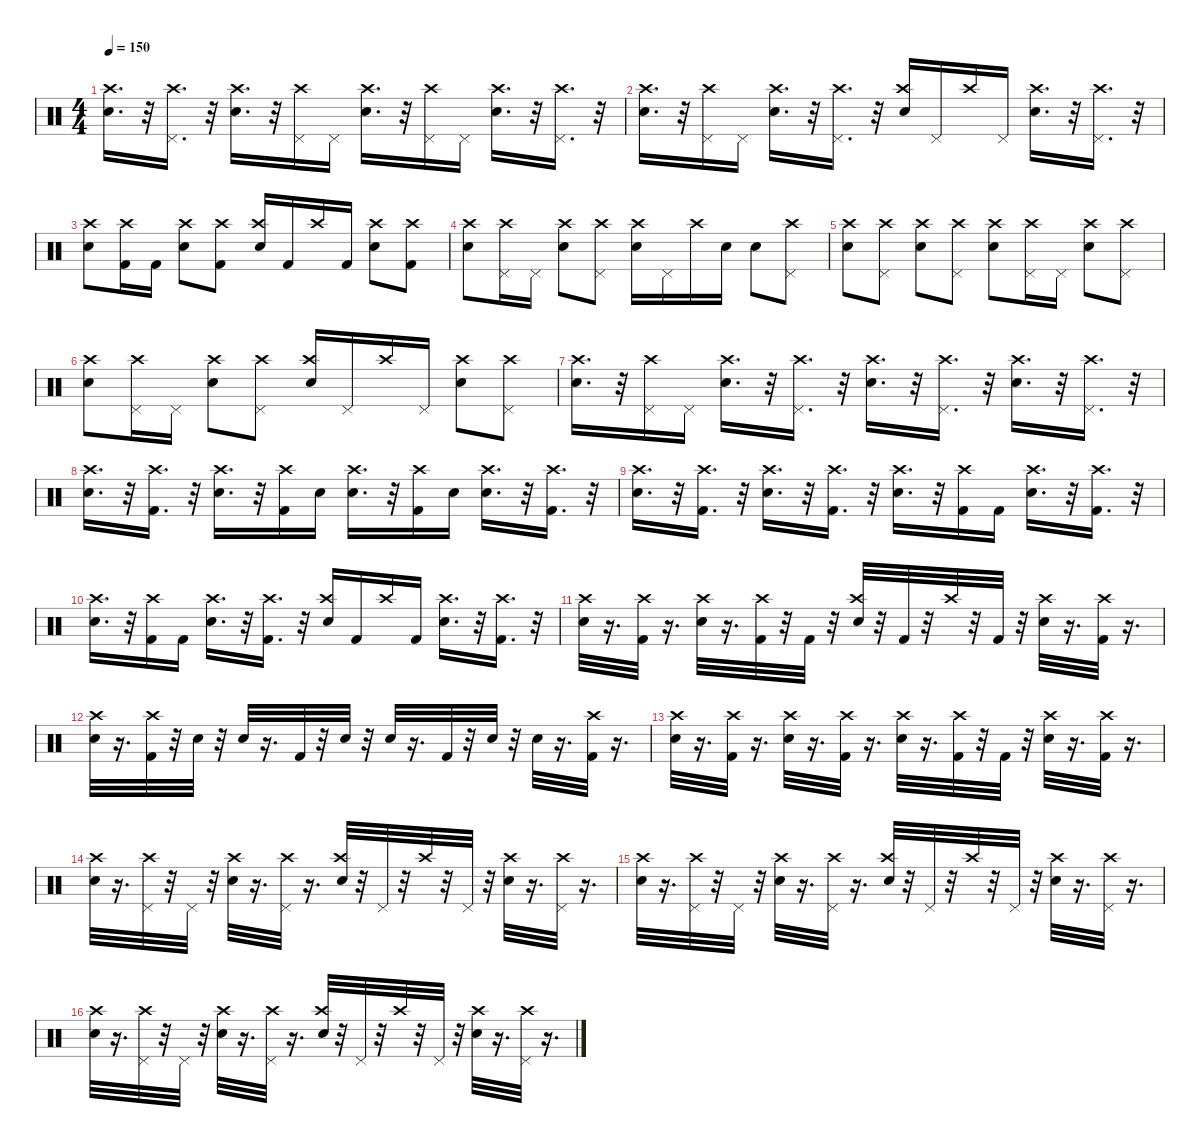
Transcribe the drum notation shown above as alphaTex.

\defaultSystemsLayout 4
\hideDynamics
\bracketExtendMode nobrackets
\singleTrackTrackNamePolicy hidden
\multiTrackTrackNamePolicy hidden
\firstSystemTrackNameMode fullname
\firstSystemTrackNameOrientation horizontal
\otherSystemsTrackNameOrientation horizontal
\track ("Bonzo" "drm.") {instrument percussion}
\staff {score}
\articulation defaults
\ts (4 4)
\tempo 150
\clef neutral
\ks c
("Snare (hit) 2" "Crash high (hit)").16{d dy fff beam Down} r.32{beam Down} ("Pedal Hi-Hat (hit)" "Crash high (hit)").16{d beam Down} r.32{beam Down} ("Snare (hit) 2" "Crash high (hit)").16{d beam Down} r.32{beam Down} ("Pedal Hi-Hat (hit)" "Crash high (hit)").16{beam Down} "Pedal Hi-Hat (hit)".16{beam Down} ("Snare (hit) 2" "Crash high (hit)").16{d beam Down} r.32{beam Down} ("Pedal Hi-Hat (hit)" "Crash high (hit)").16{beam Down} "Pedal Hi-Hat (hit)".16{beam Down} ("Snare (hit) 2" "Crash high (hit)").16{d beam Down} r.32{beam Down} ("Pedal Hi-Hat (hit)" "Crash high (hit)").16{d beam Down} r.32{beam Down} |
("Snare (hit) 2" "Crash high (hit)").16{d beam Down} r.32{beam Down} ("Pedal Hi-Hat (hit)" "Crash high (hit)").16{beam Down} "Pedal Hi-Hat (hit)".16{beam Down} ("Snare (hit) 2" "Crash high (hit)").16{d beam Down} r.32{beam Down} ("Pedal Hi-Hat (hit)" "Crash high (hit)").16{d beam Down} r.32{beam Down} ("Snare (hit) 2" "Crash high (hit)").16{beam Up} "Pedal Hi-Hat (hit)".16{beam Up} "Crash high (hit)".16{dy ff beam Up} "Pedal Hi-Hat (hit)".16{dy fff beam Up} ("Snare (hit) 2" "Crash high (hit)").16{d beam Down} r.32{beam Down} ("Pedal Hi-Hat (hit)" "Crash high (hit)").16{d beam Down} r.32{beam Down} |
("Snare (hit) 2" "Crash high (hit)").8{beam Down} ("Kick (hit) 2" "Crash high (hit)").16{beam Down} "Kick (hit) 2".16{beam Down} ("Snare (hit) 2" "Crash high (hit)").8{beam Down} ("Kick (hit) 2" "Crash high (hit)").8{beam Down} ("Snare (hit) 2" "Crash high (hit)").16{beam Up} "Kick (hit) 2".16{beam Up} "Crash high (hit)".16{dy ff beam Up} "Kick (hit) 2".16{dy fff beam Up} ("Snare (hit) 2" "Crash high (hit)").8{beam Down} ("Kick (hit) 2" "Crash high (hit)").8{beam Down} |
("Snare (hit) 2" "Crash high (hit)").8{beam Down} ("Pedal Hi-Hat (hit)" "Crash high (hit)").16{beam Down} "Pedal Hi-Hat (hit)".16{beam Down} ("Snare (hit) 2" "Crash high (hit)").8{beam Down} ("Pedal Hi-Hat (hit)" "Crash high (hit)").8{beam Down} ("Snare (hit) 2" "Crash high (hit)").16{beam Down} "Pedal Hi-Hat (hit)".16{beam Down} "Crash high (hit)".16{dy ff beam Down} "Snare (hit) 2".16{dy fff beam Down} "Snare (hit) 2".8{beam Down} ("Pedal Hi-Hat (hit)" "Crash high (hit)").8{beam Down} |
("Snare (hit) 2" "Crash high (hit)").8{beam Down} ("Pedal Hi-Hat (hit)" "Crash high (hit)").8{beam Down} ("Snare (hit) 2" "Crash high (hit)").8{beam Down} ("Pedal Hi-Hat (hit)" "Crash high (hit)").8{beam Down} ("Snare (hit) 2" "Crash high (hit)").8{beam Down} ("Pedal Hi-Hat (hit)" "Crash high (hit)").16{beam Down} "Pedal Hi-Hat (hit)".16{beam Down} ("Snare (hit) 2" "Crash high (hit)").8{beam Down} ("Pedal Hi-Hat (hit)" "Crash high (hit)").8{beam Down} |
("Snare (hit) 2" "Crash high (hit)").8{beam Down} ("Pedal Hi-Hat (hit)" "Crash high (hit)").16{beam Down} "Pedal Hi-Hat (hit)".16{beam Down} ("Snare (hit) 2" "Crash high (hit)").8{beam Down} ("Pedal Hi-Hat (hit)" "Crash high (hit)").8{beam Down} ("Snare (hit) 2" "Crash high (hit)").16{beam Up} "Pedal Hi-Hat (hit)".16{beam Up} "Crash high (hit)".16{dy ff beam Up} "Pedal Hi-Hat (hit)".16{dy fff beam Up} ("Snare (hit) 2" "Crash high (hit)").8{beam Down} ("Pedal Hi-Hat (hit)" "Crash high (hit)").8{beam Down} |
("Snare (hit) 2" "Crash high (hit)").16{d beam Down} r.32{beam Down} ("Pedal Hi-Hat (hit)" "Crash high (hit)").16{beam Down} "Pedal Hi-Hat (hit)".16{beam Down} ("Snare (hit) 2" "Crash high (hit)").16{d beam Down} r.32{beam Down} ("Pedal Hi-Hat (hit)" "Crash high (hit)").16{d beam Down} r.32{beam Down} ("Snare (hit) 2" "Crash high (hit)").16{d beam Down} r.32{beam Down} ("Pedal Hi-Hat (hit)" "Crash high (hit)").16{d beam Down} r.32{beam Down} ("Snare (hit) 2" "Crash high (hit)").16{d beam Down} r.32{beam Down} ("Pedal Hi-Hat (hit)" "Crash high (hit)").16{d beam Down} r.32{beam Down} |
("Snare (hit) 2" "Crash high (hit)").16{d beam Down} r.32{beam Down} ("Kick (hit) 2" "Crash high (hit)").16{d beam Down} r.32{beam Down} ("Snare (hit) 2" "Crash high (hit)").16{d beam Down} r.32{beam Down} ("Kick (hit) 2" "Crash high (hit)").16{beam Down} "Snare (hit) 2".16{beam Down} ("Snare (hit) 2" "Crash high (hit)").16{d beam Down} r.32{beam Down} ("Kick (hit) 2" "Crash high (hit)").16{beam Down} "Snare (hit) 2".16{beam Down} ("Snare (hit) 2" "Crash high (hit)").16{d beam Down} r.32{beam Down} ("Kick (hit) 2" "Crash high (hit)").16{d beam Down} r.32{beam Down} |
("Snare (hit) 2" "Crash high (hit)").16{d beam Down} r.32{beam Down} ("Kick (hit) 2" "Crash high (hit)").16{d beam Down} r.32{beam Down} ("Snare (hit) 2" "Crash high (hit)").16{d beam Down} r.32{beam Down} ("Kick (hit) 2" "Crash high (hit)").16{d beam Down} r.32{beam Down} ("Snare (hit) 2" "Crash high (hit)").16{d beam Down} r.32{beam Down} ("Kick (hit) 2" "Crash high (hit)").16{beam Down} "Kick (hit) 2".16{beam Down} ("Snare (hit) 2" "Crash high (hit)").16{d beam Down} r.32{beam Down} ("Kick (hit) 2" "Crash high (hit)").16{d beam Down} r.32{beam Down} |
("Snare (hit) 2" "Crash high (hit)").16{d beam Down} r.32{beam Down} ("Kick (hit) 2" "Crash high (hit)").16{beam Down} "Kick (hit) 2".16{beam Down} ("Snare (hit) 2" "Crash high (hit)").16{d beam Down} r.32{beam Down} ("Kick (hit) 2" "Crash high (hit)").16{d beam Down} r.32{beam Down} ("Snare (hit) 2" "Crash high (hit)").16{beam Up} "Kick (hit) 2".16{beam Up} "Crash high (hit)".16{dy ff beam Up} "Kick (hit) 2".16{dy fff beam Up} ("Snare (hit) 2" "Crash high (hit)").16{d beam Down} r.32{beam Down} ("Kick (hit) 2" "Crash high (hit)").16{d beam Down} r.32{beam Down} |
("Snare (hit) 2" "Crash high (hit)").32{beam Down} r.16{d beam Down} ("Kick (hit) 2" "Crash high (hit)").32{beam Down} r.16{d beam Down} ("Snare (hit) 2" "Crash high (hit)").32{beam Down} r.16{d beam Down} ("Kick (hit) 2" "Crash high (hit)").32{beam Down} r.32{beam Down} "Kick (hit) 2".32{beam Down} r.32{beam Down} ("Snare (hit) 2" "Crash high (hit)").32{beam Up} r.32{beam Up} "Kick (hit) 2".32{beam Up} r.32{beam Up} "Crash high (hit)".32{dy ff beam Up} r.32{beam Up} "Kick (hit) 2".32{dy fff beam Up} r.32{beam Up} ("Snare (hit) 2" "Crash high (hit)").32{beam Down} r.16{d beam Down} ("Kick (hit) 2" "Crash high (hit)").32{beam Down} r.16{d beam Down} |
("Snare (hit) 2" "Crash high (hit)").32{beam Down} r.16{d beam Down} ("Kick (hit) 2" "Crash high (hit)").32{beam Down} r.32{beam Down} "Snare (hit) 2".32{beam Down} r.32{beam Down} "Snare (hit) 2".32{beam Up} r.16{d beam Up} "Kick (hit) 2".32{beam Up} r.32{beam Up} "Snare (hit) 2".32{beam Up} r.32{beam Up} "Snare (hit) 2".32{beam Up} r.16{d beam Up} "Kick (hit) 2".32{beam Up} r.32{beam Up} "Snare (hit) 2".32{beam Up} r.32{beam Up} "Snare (hit) 2".32{beam Down} r.16{d beam Down} ("Kick (hit) 2" "Crash high (hit)").32{beam Down} r.16{d beam Down} |
("Snare (hit) 2" "Crash high (hit)").32{beam Down} r.16{d beam Down} ("Kick (hit) 2" "Crash high (hit)").32{beam Down} r.16{d beam Down} ("Snare (hit) 2" "Crash high (hit)").32{beam Down} r.16{d beam Down} ("Kick (hit) 2" "Crash high (hit)").32{beam Down} r.16{d beam Down} ("Snare (hit) 2" "Crash high (hit)").32{beam Down} r.16{d beam Down} ("Kick (hit) 2" "Crash high (hit)").32{beam Down} r.32{beam Down} "Kick (hit) 2".32{beam Down} r.32{beam Down} ("Snare (hit) 2" "Crash high (hit)").32{beam Down} r.16{d beam Down} ("Kick (hit) 2" "Crash high (hit)").32{beam Down} r.16{d beam Down} |
("Snare (hit) 2" "Crash high (hit)").32{beam Down} r.16{d beam Down} ("Pedal Hi-Hat (hit)" "Crash high (hit)").32{beam Down} r.32{beam Down} "Pedal Hi-Hat (hit)".32{beam Down} r.32{beam Down} ("Snare (hit) 2" "Crash high (hit)").32{beam Down} r.16{d beam Down} ("Pedal Hi-Hat (hit)" "Crash high (hit)").32{beam Down} r.16{d beam Down} ("Snare (hit) 2" "Crash high (hit)").32{beam Up} r.32{beam Up} "Pedal Hi-Hat (hit)".32{beam Up} r.32{beam Up} "Crash high (hit)".32{dy ff beam Up} r.32{beam Up} "Pedal Hi-Hat (hit)".32{dy fff beam Up} r.32{beam Up} ("Snare (hit) 2" "Crash high (hit)").32{beam Down} r.16{d beam Down} ("Pedal Hi-Hat (hit)" "Crash high (hit)").32{beam Down} r.16{d beam Down} |
("Snare (hit) 2" "Crash high (hit)").32{beam Down} r.16{d beam Down} ("Pedal Hi-Hat (hit)" "Crash high (hit)").32{beam Down} r.32{beam Down} "Pedal Hi-Hat (hit)".32{beam Down} r.32{beam Down} ("Snare (hit) 2" "Crash high (hit)").32{beam Down} r.16{d beam Down} ("Pedal Hi-Hat (hit)" "Crash high (hit)").32{beam Down} r.16{d beam Down} ("Snare (hit) 2" "Crash high (hit)").32{beam Up} r.32{beam Up} "Pedal Hi-Hat (hit)".32{beam Up} r.32{beam Up} "Crash high (hit)".32{dy ff beam Up} r.32{beam Up} "Pedal Hi-Hat (hit)".32{dy fff beam Up} r.32{beam Up} ("Snare (hit) 2" "Crash high (hit)").32{beam Down} r.16{d beam Down} ("Pedal Hi-Hat (hit)" "Crash high (hit)").32{beam Down} r.16{d beam Down} |
("Snare (hit) 2" "Crash high (hit)").32{beam Down} r.16{d beam Down} ("Pedal Hi-Hat (hit)" "Crash high (hit)").32{beam Down} r.32{beam Down} "Pedal Hi-Hat (hit)".32{beam Down} r.32{beam Down} ("Snare (hit) 2" "Crash high (hit)").32{beam Down} r.16{d beam Down} ("Pedal Hi-Hat (hit)" "Crash high (hit)").32{beam Down} r.16{d beam Down} ("Snare (hit) 2" "Crash high (hit)").32{beam Up} r.32{beam Up} "Pedal Hi-Hat (hit)".32{beam Up} r.32{beam Up} "Crash high (hit)".32{dy ff beam Up} r.32{beam Up} "Pedal Hi-Hat (hit)".32{dy fff beam Up} r.32{beam Up} ("Snare (hit) 2" "Crash high (hit)").32{beam Down} r.16{d beam Down} ("Pedal Hi-Hat (hit)" "Crash high (hit)").32{beam Down} r.16{d beam Down}
